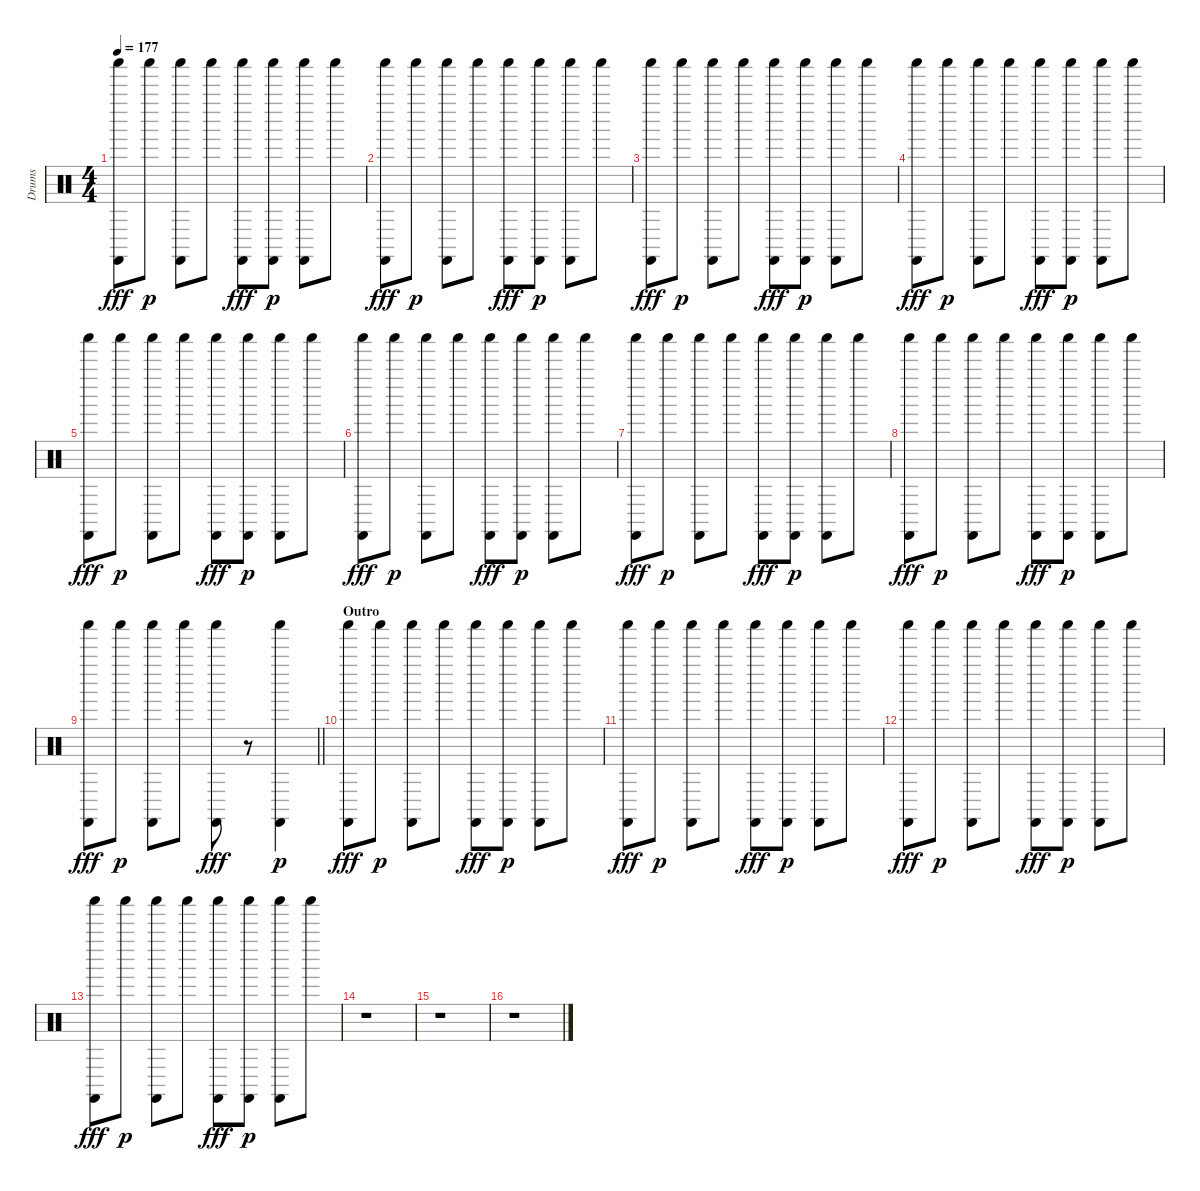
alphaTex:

\track ("Drums" "Drums") {instrument percussion}
\staff {score}
\articulation defaults
\ts (4 4)
\tempo 177
\clef neutral
\ks c
("Castanets (hit)" "Shaker (hit)").8{dy fff} "Shaker (hit)".8{dy p} ("Castanets (hit)" "Shaker (hit)").8 "Shaker (hit)".8 ("Castanets (hit)" "Shaker (hit)").8{dy fff} ("Castanets (hit)" "Shaker (hit)").8{dy p} ("Castanets (hit)" "Shaker (hit)").8 "Shaker (hit)".8 |
("Castanets (hit)" "Shaker (hit)").8{dy fff} "Shaker (hit)".8{dy p} ("Castanets (hit)" "Shaker (hit)").8 "Shaker (hit)".8 ("Castanets (hit)" "Shaker (hit)").8{dy fff} ("Castanets (hit)" "Shaker (hit)").8{dy p} ("Castanets (hit)" "Shaker (hit)").8 "Shaker (hit)".8 |
("Castanets (hit)" "Shaker (hit)").8{dy fff} "Shaker (hit)".8{dy p} ("Castanets (hit)" "Shaker (hit)").8 "Shaker (hit)".8 ("Castanets (hit)" "Shaker (hit)").8{dy fff} ("Castanets (hit)" "Shaker (hit)").8{dy p} ("Castanets (hit)" "Shaker (hit)").8 "Shaker (hit)".8 |
("Castanets (hit)" "Shaker (hit)").8{dy fff} "Shaker (hit)".8{dy p} ("Castanets (hit)" "Shaker (hit)").8 "Shaker (hit)".8 ("Castanets (hit)" "Shaker (hit)").8{dy fff} ("Castanets (hit)" "Shaker (hit)").8{dy p} ("Castanets (hit)" "Shaker (hit)").8 "Shaker (hit)".8 |
("Castanets (hit)" "Shaker (hit)").8{dy fff} "Shaker (hit)".8{dy p} ("Castanets (hit)" "Shaker (hit)").8 "Shaker (hit)".8 ("Castanets (hit)" "Shaker (hit)").8{dy fff} ("Castanets (hit)" "Shaker (hit)").8{dy p} ("Castanets (hit)" "Shaker (hit)").8 "Shaker (hit)".8 |
("Castanets (hit)" "Shaker (hit)").8{dy fff} "Shaker (hit)".8{dy p} ("Castanets (hit)" "Shaker (hit)").8 "Shaker (hit)".8 ("Castanets (hit)" "Shaker (hit)").8{dy fff} ("Castanets (hit)" "Shaker (hit)").8{dy p} ("Castanets (hit)" "Shaker (hit)").8 "Shaker (hit)".8 |
("Castanets (hit)" "Shaker (hit)").8{dy fff} "Shaker (hit)".8{dy p} ("Castanets (hit)" "Shaker (hit)").8 "Shaker (hit)".8 ("Castanets (hit)" "Shaker (hit)").8{dy fff} ("Castanets (hit)" "Shaker (hit)").8{dy p} ("Castanets (hit)" "Shaker (hit)").8 "Shaker (hit)".8 |
("Castanets (hit)" "Shaker (hit)").8{dy fff} "Shaker (hit)".8{dy p} ("Castanets (hit)" "Shaker (hit)").8 "Shaker (hit)".8 ("Castanets (hit)" "Shaker (hit)").8{dy fff} ("Castanets (hit)" "Shaker (hit)").8{dy p} ("Castanets (hit)" "Shaker (hit)").8 "Shaker (hit)".8 |
\barLineRight lightlight
("Castanets (hit)" "Shaker (hit)").8{dy fff} "Shaker (hit)".8{dy p} ("Castanets (hit)" "Shaker (hit)").8 "Shaker (hit)".8 ("Castanets (hit)" "Shaker (hit)").8{dy fff} r.8 ("Castanets (hit)" "Shaker (hit)").4{dy p} |
\section ("" "Outro")
("Castanets (hit)" "Shaker (hit)").8{dy fff} "Shaker (hit)".8{dy p} ("Castanets (hit)" "Shaker (hit)").8 "Shaker (hit)".8 ("Castanets (hit)" "Shaker (hit)").8{dy fff} ("Castanets (hit)" "Shaker (hit)").8{dy p} ("Castanets (hit)" "Shaker (hit)").8 "Shaker (hit)".8 |
("Castanets (hit)" "Shaker (hit)").8{dy fff} "Shaker (hit)".8{dy p} ("Castanets (hit)" "Shaker (hit)").8 "Shaker (hit)".8 ("Castanets (hit)" "Shaker (hit)").8{dy fff} ("Castanets (hit)" "Shaker (hit)").8{dy p} ("Castanets (hit)" "Shaker (hit)").8 "Shaker (hit)".8 |
("Castanets (hit)" "Shaker (hit)").8{dy fff} "Shaker (hit)".8{dy p} ("Castanets (hit)" "Shaker (hit)").8 "Shaker (hit)".8 ("Castanets (hit)" "Shaker (hit)").8{dy fff} ("Castanets (hit)" "Shaker (hit)").8{dy p} ("Castanets (hit)" "Shaker (hit)").8 "Shaker (hit)".8 |
("Castanets (hit)" "Shaker (hit)").8{dy fff} "Shaker (hit)".8{dy p} ("Castanets (hit)" "Shaker (hit)").8 "Shaker (hit)".8 ("Castanets (hit)" "Shaker (hit)").8{dy fff} ("Castanets (hit)" "Shaker (hit)").8{dy p} ("Castanets (hit)" "Shaker (hit)").8 "Shaker (hit)".8 |
r.1 |
r.1 |
r.1
